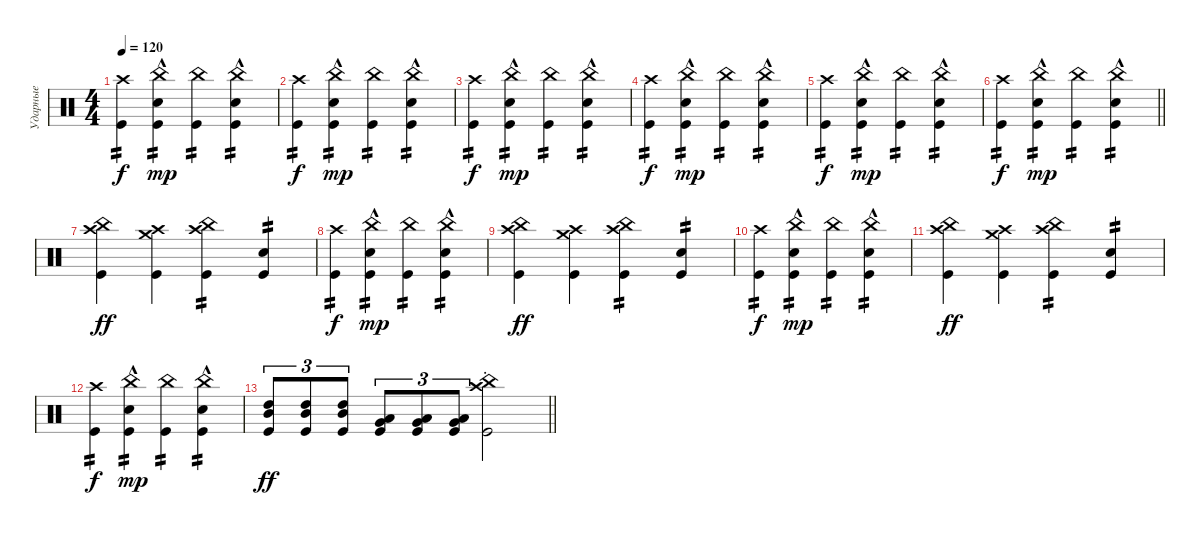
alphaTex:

\track ("Ударные" "Ударные") {instrument percussion}
\staff {score}
\articulation defaults
\ts (4 4)
\tempo 120
\clef neutral
\ks c
("Kick (hit)" "Crash high (hit)").4{tp 2 dy f} ("Snare (hit) 2"{hac} "China (hit)" "Kick (hit)").4{tp 2 dy mp} ("China (hit)" "Kick (hit)").4{tp 2} ("Snare (hit) 2"{hac} "China (hit)" "Kick (hit)").4{tp 2} |
("Kick (hit)" "Crash high (hit)").4{tp 2 dy f} ("Snare (hit) 2"{hac} "China (hit)" "Kick (hit)").4{tp 2 dy mp} ("China (hit)" "Kick (hit)").4{tp 2} ("Snare (hit) 2"{hac} "China (hit)" "Kick (hit)").4{tp 2} |
("Kick (hit)" "Crash high (hit)").4{tp 2 dy f} ("Snare (hit) 2"{hac} "China (hit)" "Kick (hit)").4{tp 2 dy mp} ("China (hit)" "Kick (hit)").4{tp 2} ("Snare (hit) 2"{hac} "China (hit)" "Kick (hit)").4{tp 2} |
("Kick (hit)" "Crash high (hit)").4{tp 2 dy f} ("Snare (hit) 2"{hac} "China (hit)" "Kick (hit)").4{tp 2 dy mp} ("China (hit)" "Kick (hit)").4{tp 2} ("Snare (hit) 2"{hac} "China (hit)" "Kick (hit)").4{tp 2} |
("Kick (hit)" "Crash high (hit)").4{tp 2 dy f} ("Snare (hit) 2"{hac} "China (hit)" "Kick (hit)").4{tp 2 dy mp} ("China (hit)" "Kick (hit)").4{tp 2} ("Snare (hit) 2"{hac} "China (hit)" "Kick (hit)").4{tp 2} |
\barLineRight lightlight
("Kick (hit)" "Crash high (hit)").4{tp 2 dy f} ("Snare (hit) 2"{hac} "China (hit)" "Kick (hit)").4{tp 2 dy mp} ("China (hit)" "Kick (hit)").4{tp 2} ("Snare (hit) 2"{hac} "China (hit)" "Kick (hit)").4{tp 2} |
("Kick (hit)" "Crash high (hit)" "China (hit)").4{dy ff} ("Kick (hit)" "Crash high (hit)" "Crash medium (hit)").4 ("Kick (hit)" "Crash high (hit)" "China (hit)").4{tp 2} ("Kick (hit)" "Snare (hit) 2").4{tp 2} |
("Kick (hit)" "Crash high (hit)").4{tp 2 dy f} ("Snare (hit) 2"{hac} "China (hit)" "Kick (hit)").4{tp 2 dy mp} ("China (hit)" "Kick (hit)").4{tp 2} ("Snare (hit) 2"{hac} "China (hit)" "Kick (hit)").4{tp 2} |
("Kick (hit)" "Crash high (hit)" "China (hit)").4{dy ff} ("Kick (hit)" "Crash high (hit)" "Crash medium (hit)").4 ("Kick (hit)" "Crash high (hit)" "China (hit)").4{tp 2} ("Kick (hit)" "Snare (hit) 2").4{tp 2} |
("Kick (hit)" "Crash high (hit)").4{tp 2 dy f} ("Snare (hit) 2"{hac} "China (hit)" "Kick (hit)").4{tp 2 dy mp} ("China (hit)" "Kick (hit)").4{tp 2} ("Snare (hit) 2"{hac} "China (hit)" "Kick (hit)").4{tp 2} |
("Kick (hit)" "Crash high (hit)" "China (hit)").4{dy ff} ("Kick (hit)" "Crash high (hit)" "Crash medium (hit)").4 ("Kick (hit)" "Crash high (hit)" "China (hit)").4{tp 2} ("Kick (hit)" "Snare (hit) 2").4{tp 2} |
("Kick (hit)" "Crash high (hit)").4{tp 2 dy f} ("Snare (hit) 2"{hac} "China (hit)" "Kick (hit)").4{tp 2 dy mp} ("China (hit)" "Kick (hit)").4{tp 2} ("Snare (hit) 2"{hac} "China (hit)" "Kick (hit)").4{tp 2} |
\barLineRight lightlight
("High Tom (hit)" "Mid Tom (hit)" "Kick (hit)").8{tu (3 2) dy ff} ("High Tom (hit)" "Mid Tom (hit)" "Kick (hit)").8{tu (3 2)} ("Mid Tom (hit)" "High Tom (hit)" "Kick (hit)").8{tu (3 2)} ("Low Tom (hit)" "Very Low Tom (hit)" "Kick (hit)").8{tu (3 2)} ("Low Tom (hit)" "Very Low Tom (hit)" "Kick (hit)").8{tu (3 2)} ("Low Tom (hit)" "Very Low Tom (hit)" "Kick (hit)").8{tu (3 2)} ("Crash high (hit)"{st} "China (hit)"{st} "Kick (hit)"{st}).2
